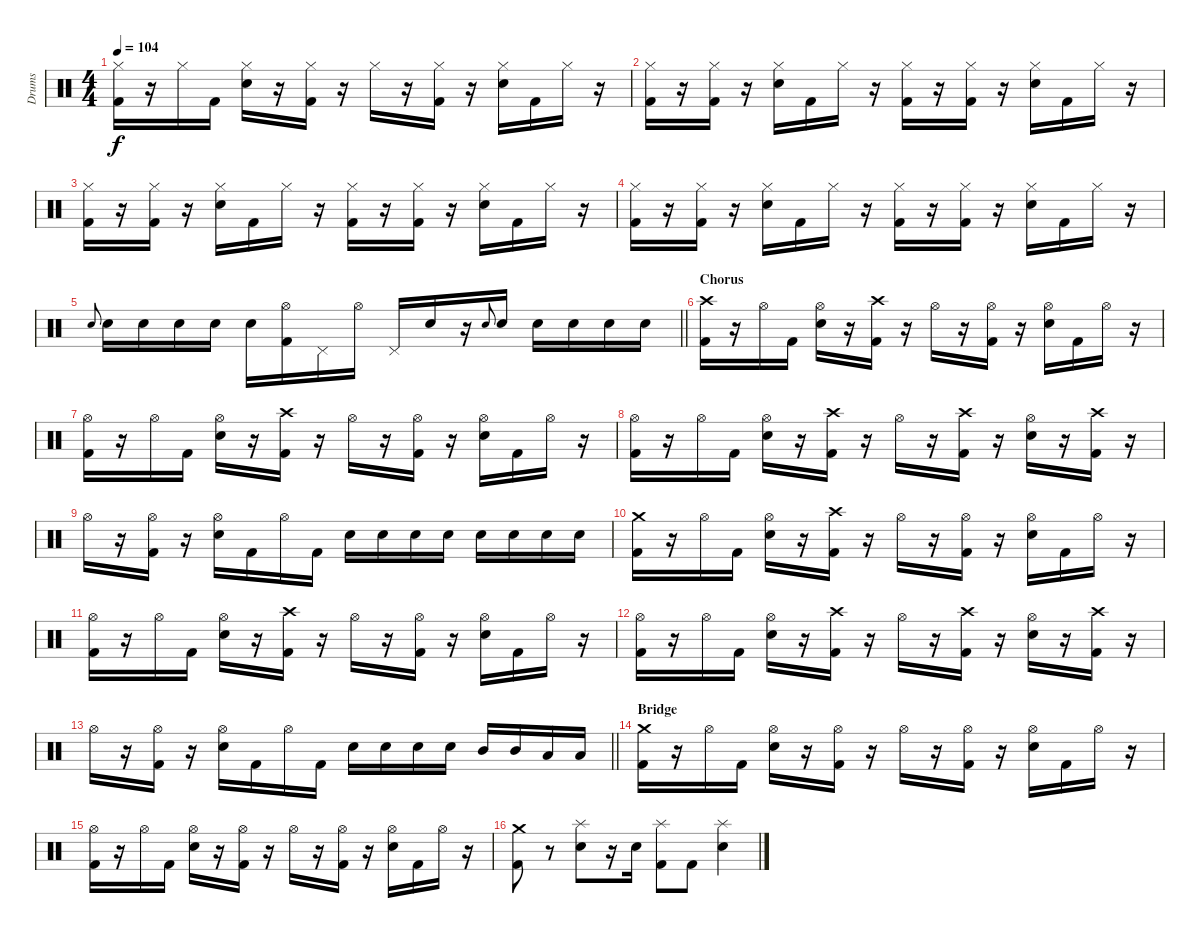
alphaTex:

\track ("Drums" "Drums") {instrument percussion}
\staff {score}
\articulation defaults
\ts (4 4)
\tempo 104
\clef neutral
\ks c
("Hi-Hat (closed)" "Kick (hit) 2").16{dy f} r.16 "Hi-Hat (closed)".16 "Kick (hit) 2".16 ("Hi-Hat (closed)" "Snare (hit) 2").16 r.16 ("Hi-Hat (closed)" "Kick (hit) 2").16 r.16 "Hi-Hat (closed)".16 r.16 ("Hi-Hat (closed)" "Kick (hit) 2").16 r.16 ("Hi-Hat (closed)" "Snare (hit) 2").16 "Kick (hit) 2".16 "Hi-Hat (closed)".16 r.16 |
("Hi-Hat (closed)" "Kick (hit) 2").16 r.16 ("Hi-Hat (closed)" "Kick (hit) 2").16 r.16 ("Hi-Hat (closed)" "Snare (hit) 2").16 "Kick (hit) 2".16 "Hi-Hat (closed)".16 r.16 ("Hi-Hat (closed)" "Kick (hit) 2").16 r.16 ("Hi-Hat (closed)" "Kick (hit) 2").16 r.16 ("Hi-Hat (closed)" "Snare (hit) 2").16 "Kick (hit) 2".16 "Hi-Hat (closed)".16 r.16 |
("Hi-Hat (closed)" "Kick (hit) 2").16 r.16 ("Hi-Hat (closed)" "Kick (hit) 2").16 r.16 ("Hi-Hat (closed)" "Snare (hit) 2").16 "Kick (hit) 2".16 "Hi-Hat (closed)".16 r.16 ("Hi-Hat (closed)" "Kick (hit) 2").16 r.16 ("Hi-Hat (closed)" "Kick (hit) 2").16 r.16 ("Hi-Hat (closed)" "Snare (hit) 2").16 "Kick (hit) 2".16 "Hi-Hat (closed)".16 r.16 |
("Hi-Hat (closed)" "Kick (hit) 2").16 r.16 ("Hi-Hat (closed)" "Kick (hit) 2").16 r.16 ("Hi-Hat (closed)" "Snare (hit) 2").16 "Kick (hit) 2".16 "Hi-Hat (closed)".16 r.16 ("Hi-Hat (closed)" "Kick (hit) 2").16 r.16 ("Hi-Hat (closed)" "Kick (hit) 2").16 r.16 ("Hi-Hat (closed)" "Snare (hit) 2").16 "Kick (hit) 2".16 "Hi-Hat (closed)".16 r.16 |
\barLineRight lightlight "Snare (hit) 2".8{gr onbeat} "Snare (hit) 2".16 "Snare (hit) 2".16 "Snare (hit) 2".16 "Snare (hit) 2".16 "Snare (hit) 2".16
("Hi-Hat (open)" "Kick (hit) 2").16 "Pedal Hi-Hat (hit)".16 "Hi-Hat (open)".16 "Pedal Hi-Hat (hit)".16 "Snare (hit) 2".16 r.16 "Snare (hit) 2".8{gr onbeat} "Snare (hit) 2".16 "Snare (hit) 2".16 "Snare (hit) 2".16 "Snare (hit) 2".16 "Snare (hit) 2".16 |
\section ("" "Chorus")
("Crash high (hit)" "Kick (hit) 2").16 r.16 "Hi-Hat (open)".16 "Kick (hit) 2".16 ("Hi-Hat (open)" "Snare (hit) 2").16 r.16 ("Crash high (hit)" "Kick (hit) 2").16 r.16 "Hi-Hat (open)".16 r.16 ("Hi-Hat (open)" "Kick (hit) 2").16 r.16 ("Hi-Hat (open)" "Snare (hit) 2").16 "Kick (hit) 2".16 "Hi-Hat (open)".16 r.16 |
("Hi-Hat (open)" "Kick (hit) 2").16 r.16 "Hi-Hat (open)".16 "Kick (hit) 2".16 ("Hi-Hat (open)" "Snare (hit) 2").16 r.16 ("Crash high (hit)" "Kick (hit) 2").16 r.16 "Hi-Hat (open)".16 r.16 ("Hi-Hat (open)" "Kick (hit) 2").16 r.16 ("Hi-Hat (open)" "Snare (hit) 2").16 "Kick (hit) 2".16 "Hi-Hat (open)".16 r.16 |
("Hi-Hat (open)" "Kick (hit) 2").16 r.16 "Hi-Hat (open)".16 "Kick (hit) 2".16 ("Hi-Hat (open)" "Snare (hit) 2").16 r.16 ("Crash high (hit)" "Kick (hit) 2").16 r.16 "Hi-Hat (open)".16 r.16 ("Crash high (hit)" "Kick (hit) 2").16 r.16 ("Hi-Hat (open)" "Snare (hit) 2").16 r.16 ("Crash high (hit)" "Kick (hit) 2").16 r.16 |
"Hi-Hat (open)".16 r.16 ("Hi-Hat (open)" "Kick (hit) 2").16 r.16 ("Hi-Hat (open)" "Snare (hit) 2").16 "Kick (hit) 2".16 "Hi-Hat (open)".16 "Kick (hit) 2".16 "Snare (hit) 2".16 "Snare (hit) 2".16 "Snare (hit) 2".16 "Snare (hit) 2".16 "Snare (hit) 2".16 "Snare (hit) 2".16 "Snare (hit) 2".16 "Snare (hit) 2".16 |
("Crash medium (hit)" "Kick (hit) 2").16 r.16 "Hi-Hat (open)".16 "Kick (hit) 2".16 ("Hi-Hat (open)" "Snare (hit) 2").16 r.16 ("Crash high (hit)" "Kick (hit) 2").16 r.16 "Hi-Hat (open)".16 r.16 ("Hi-Hat (open)" "Kick (hit) 2").16 r.16 ("Hi-Hat (open)" "Snare (hit) 2").16 "Kick (hit) 2".16 "Hi-Hat (open)".16 r.16 |
("Hi-Hat (open)" "Kick (hit) 2").16 r.16 "Hi-Hat (open)".16 "Kick (hit) 2".16 ("Hi-Hat (open)" "Snare (hit) 2").16 r.16 ("Crash high (hit)" "Kick (hit) 2").16 r.16 "Hi-Hat (open)".16 r.16 ("Hi-Hat (open)" "Kick (hit) 2").16 r.16 ("Hi-Hat (open)" "Snare (hit) 2").16 "Kick (hit) 2".16 "Hi-Hat (open)".16 r.16 |
("Hi-Hat (open)" "Kick (hit) 2").16 r.16 "Hi-Hat (open)".16 "Kick (hit) 2".16 ("Hi-Hat (open)" "Snare (hit) 2").16 r.16 ("Crash high (hit)" "Kick (hit) 2").16 r.16 "Hi-Hat (open)".16 r.16 ("Crash high (hit)" "Kick (hit) 2").16 r.16 ("Hi-Hat (open)" "Snare (hit) 2").16 r.16 ("Crash high (hit)" "Kick (hit) 2").16 r.16 |
\barLineRight lightlight "Hi-Hat (open)".16
r.16 ("Hi-Hat (open)" "Kick (hit) 2").16 r.16 ("Hi-Hat (open)" "Snare (hit) 2").16 "Kick (hit) 2".16 "Hi-Hat (open)".16 "Kick (hit) 2".16 "Snare (hit) 2".16 "Snare (hit) 2".16 "Snare (hit) 2".16 "Snare (hit) 2".16 "Mid Tom (hit)".16 "Mid Tom (hit)".16 "Low Tom (hit)".16 "Low Tom (hit)".16 |
\section ("" "Bridge")
("Crash medium (hit)" "Kick (hit) 2").16 r.16 "Hi-Hat (open)".16 "Kick (hit) 2".16 ("Hi-Hat (open)" "Snare (hit) 2").16 r.16 ("Hi-Hat (open)" "Kick (hit) 2").16 r.16 "Hi-Hat (open)".16 r.16 ("Hi-Hat (open)" "Kick (hit) 2").16 r.16 ("Hi-Hat (open)" "Snare (hit) 2").16 "Kick (hit) 2".16 "Hi-Hat (open)".16 r.16 |
("Hi-Hat (open)" "Kick (hit) 2").16 r.16 "Hi-Hat (open)".16 "Kick (hit) 2".16 ("Hi-Hat (open)" "Snare (hit) 2").16 r.16 ("Hi-Hat (open)" "Kick (hit) 2").16 r.16 "Hi-Hat (open)".16 r.16 ("Hi-Hat (open)" "Kick (hit) 2").16 r.16 ("Hi-Hat (open)" "Snare (hit) 2").16 "Kick (hit) 2".16 "Hi-Hat (open)".16 r.16 |
("Crash medium (hit)" "Kick (hit) 2").8 r.8 ("Splash (hit)" "Snare (hit) 2").8 r.16 "Snare (hit) 2".16 ("Splash (hit)" "Kick (hit) 2").8 "Kick (hit) 2".8 ("Splash (hit)" "Snare (hit) 2").4
